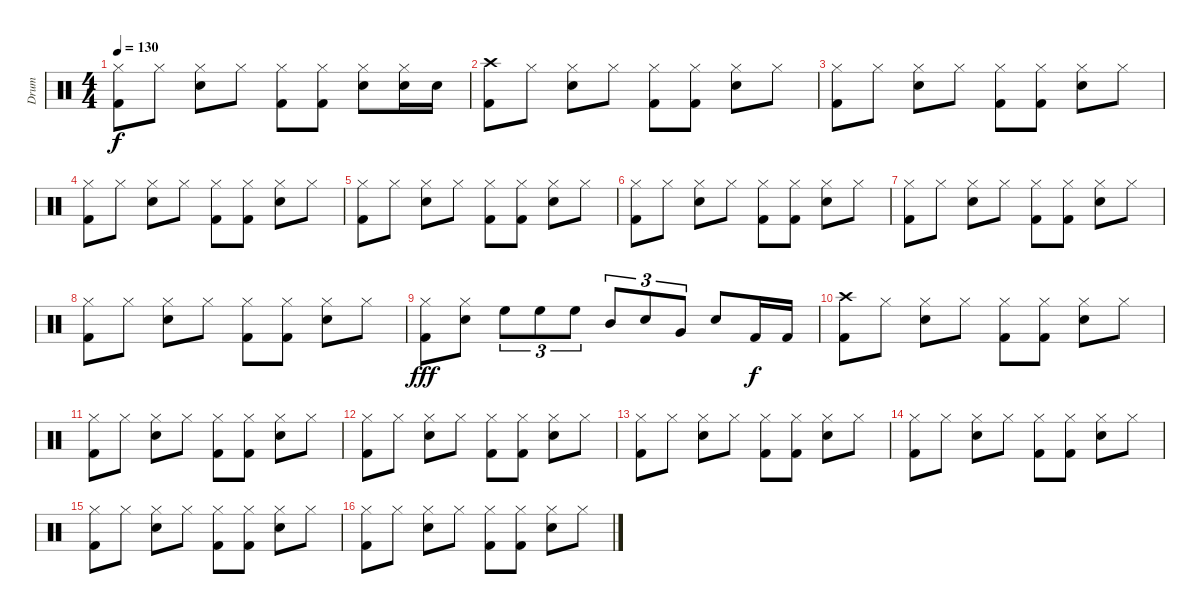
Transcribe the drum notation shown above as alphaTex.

\track ("Drum" "Drum") {instrument percussion}
\staff {score}
\articulation defaults
\ts (4 4)
\tempo 130
\clef neutral
\ks c
("Hi-Hat (closed)" "Kick (hit) 2").8{dy f} "Hi-Hat (closed)".8 ("Hi-Hat (closed)" "Snare (hit) 2").8 "Hi-Hat (closed)".8 ("Hi-Hat (closed)" "Kick (hit) 2").8 ("Hi-Hat (closed)" "Kick (hit) 2").8 ("Hi-Hat (closed)" "Snare (hit) 2").8 ("Hi-Hat (closed)" "Snare (hit) 2").16 "Snare (hit) 2".16 |
("Crash high (hit)" "Kick (hit) 2").8 "Hi-Hat (closed)".8 ("Hi-Hat (closed)" "Snare (hit) 2").8 "Hi-Hat (closed)".8 ("Hi-Hat (closed)" "Kick (hit) 2").8 ("Hi-Hat (closed)" "Kick (hit) 2").8 ("Hi-Hat (closed)" "Snare (hit) 2").8 "Hi-Hat (closed)".8 |
("Hi-Hat (closed)" "Kick (hit) 2").8 "Hi-Hat (closed)".8 ("Hi-Hat (closed)" "Snare (hit) 2").8 "Hi-Hat (closed)".8 ("Hi-Hat (closed)" "Kick (hit) 2").8 ("Hi-Hat (closed)" "Kick (hit) 2").8 ("Hi-Hat (closed)" "Snare (hit) 2").8 "Hi-Hat (closed)".8 |
("Hi-Hat (closed)" "Kick (hit) 2").8 "Hi-Hat (closed)".8 ("Hi-Hat (closed)" "Snare (hit) 2").8 "Hi-Hat (closed)".8 ("Hi-Hat (closed)" "Kick (hit) 2").8 ("Hi-Hat (closed)" "Kick (hit) 2").8 ("Hi-Hat (closed)" "Snare (hit) 2").8 "Hi-Hat (closed)".8 |
("Hi-Hat (closed)" "Kick (hit) 2").8 "Hi-Hat (closed)".8 ("Hi-Hat (closed)" "Snare (hit) 2").8 "Hi-Hat (closed)".8 ("Hi-Hat (closed)" "Kick (hit) 2").8 ("Hi-Hat (closed)" "Kick (hit) 2").8 ("Hi-Hat (closed)" "Snare (hit) 2").8 "Hi-Hat (closed)".8 |
("Hi-Hat (closed)" "Kick (hit) 2").8 "Hi-Hat (closed)".8 ("Hi-Hat (closed)" "Snare (hit) 2").8 "Hi-Hat (closed)".8 ("Hi-Hat (closed)" "Kick (hit) 2").8 ("Hi-Hat (closed)" "Kick (hit) 2").8 ("Hi-Hat (closed)" "Snare (hit) 2").8 "Hi-Hat (closed)".8 |
("Hi-Hat (closed)" "Kick (hit) 2").8 "Hi-Hat (closed)".8 ("Hi-Hat (closed)" "Snare (hit) 2").8 "Hi-Hat (closed)".8 ("Hi-Hat (closed)" "Kick (hit) 2").8 ("Hi-Hat (closed)" "Kick (hit) 2").8 ("Hi-Hat (closed)" "Snare (hit) 2").8 "Hi-Hat (closed)".8 |
("Hi-Hat (closed)" "Kick (hit) 2").8 "Hi-Hat (closed)".8 ("Hi-Hat (closed)" "Snare (hit) 2").8 "Hi-Hat (closed)".8 ("Hi-Hat (closed)" "Kick (hit) 2").8 ("Hi-Hat (closed)" "Kick (hit) 2").8 ("Hi-Hat (closed)" "Snare (hit) 2").8 "Hi-Hat (closed)".8 |
("Hi-Hat (closed)" "Kick (hit) 2").8{dy fff} ("Hi-Hat (closed)" "Snare (hit) 2").8 "High Floor Tom (hit)".8{tu (3 2)} "High Floor Tom (hit)".8{tu (3 2)} "High Floor Tom (hit)".8{tu (3 2)} "Mid Tom (hit)".8{tu (3 2)} "Electric Snare (hit)".8{tu (3 2)} "Very Low Tom (hit)".8{tu (3 2)} "Snare (hit) 2".8 "Kick (hit) 2".16{dy f} "Kick (hit) 2".16 |
("Crash high (hit)" "Kick (hit) 2").8 "Hi-Hat (closed)".8 ("Hi-Hat (closed)" "Snare (hit) 2").8 "Hi-Hat (closed)".8 ("Hi-Hat (closed)" "Kick (hit) 2").8 ("Hi-Hat (closed)" "Kick (hit) 2").8 ("Hi-Hat (closed)" "Snare (hit) 2").8 "Hi-Hat (closed)".8 |
("Hi-Hat (closed)" "Kick (hit) 2").8 "Hi-Hat (closed)".8 ("Hi-Hat (closed)" "Snare (hit) 2").8 "Hi-Hat (closed)".8 ("Hi-Hat (closed)" "Kick (hit) 2").8 ("Hi-Hat (closed)" "Kick (hit) 2").8 ("Hi-Hat (closed)" "Snare (hit) 2").8 "Hi-Hat (closed)".8 |
("Hi-Hat (closed)" "Kick (hit) 2").8 "Hi-Hat (closed)".8 ("Hi-Hat (closed)" "Snare (hit) 2").8 "Hi-Hat (closed)".8 ("Hi-Hat (closed)" "Kick (hit) 2").8 ("Hi-Hat (closed)" "Kick (hit) 2").8 ("Hi-Hat (closed)" "Snare (hit) 2").8 "Hi-Hat (closed)".8 |
("Hi-Hat (closed)" "Kick (hit) 2").8 "Hi-Hat (closed)".8 ("Hi-Hat (closed)" "Snare (hit) 2").8 "Hi-Hat (closed)".8 ("Hi-Hat (closed)" "Kick (hit) 2").8 ("Hi-Hat (closed)" "Kick (hit) 2").8 ("Hi-Hat (closed)" "Snare (hit) 2").8 "Hi-Hat (closed)".8 |
("Hi-Hat (closed)" "Kick (hit) 2").8 "Hi-Hat (closed)".8 ("Hi-Hat (closed)" "Snare (hit) 2").8 "Hi-Hat (closed)".8 ("Hi-Hat (closed)" "Kick (hit) 2").8 ("Hi-Hat (closed)" "Kick (hit) 2").8 ("Hi-Hat (closed)" "Snare (hit) 2").8 "Hi-Hat (closed)".8 |
("Hi-Hat (closed)" "Kick (hit) 2").8 "Hi-Hat (closed)".8 ("Hi-Hat (closed)" "Snare (hit) 2").8 "Hi-Hat (closed)".8 ("Hi-Hat (closed)" "Kick (hit) 2").8 ("Hi-Hat (closed)" "Kick (hit) 2").8 ("Hi-Hat (closed)" "Snare (hit) 2").8 "Hi-Hat (closed)".8 |
("Hi-Hat (closed)" "Kick (hit) 2").8 "Hi-Hat (closed)".8 ("Hi-Hat (closed)" "Snare (hit) 2").8 "Hi-Hat (closed)".8 ("Hi-Hat (closed)" "Kick (hit) 2").8 ("Hi-Hat (closed)" "Kick (hit) 2").8 ("Hi-Hat (closed)" "Snare (hit) 2").8 "Hi-Hat (closed)".8
